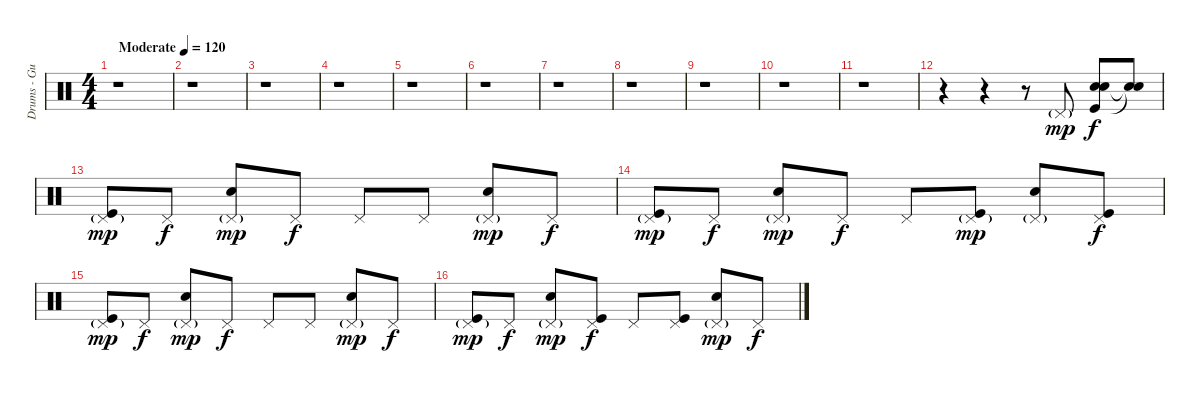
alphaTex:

\track ("Drums - Gustav" "Drums - Gu") {instrument percussion}
\staff {score}
\articulation defaults
\ts (4 4)
\tempo (120 "Moderate")
\clef neutral
\ks c
r.1{dy mp} |
r.1 |
r.1 |
r.1 |
r.1 |
r.1 |
r.1 |
r.1 |
r.1 |
r.1 |
r.1 |
r.4 r.4 r.8 "Pedal Hi-Hat (hit)"{g}.8 ("Kick (hit)" "Snare (hit) 2" "Snare (hit) 2").8{dy f} ("Snare (hit)"{t} "Snare (hit) 2"{t}).8 |
("Kick (hit)" "Pedal Hi-Hat (hit)"{g}).8{dy mp} "Pedal Hi-Hat (hit)".8{dy f} ("Pedal Hi-Hat (hit)"{g} "Snare (hit) 2").8{dy mp} "Pedal Hi-Hat (hit)".8{dy f} "Pedal Hi-Hat (hit)".8 "Pedal Hi-Hat (hit)".8 ("Pedal Hi-Hat (hit)"{g} "Snare (hit) 2").8{dy mp} "Pedal Hi-Hat (hit)".8{dy f} |
("Kick (hit)" "Pedal Hi-Hat (hit)"{g}).8{dy mp} "Pedal Hi-Hat (hit)".8{dy f} ("Pedal Hi-Hat (hit)"{g} "Snare (hit) 2").8{dy mp} "Pedal Hi-Hat (hit)".8{dy f} "Pedal Hi-Hat (hit)".8 ("Kick (hit)" "Pedal Hi-Hat (hit)"{g}).8{dy mp} ("Pedal Hi-Hat (hit)"{g} "Snare (hit) 2").8 ("Kick (hit)" "Pedal Hi-Hat (hit)").8{dy f} |
("Kick (hit)" "Pedal Hi-Hat (hit)"{g}).8{dy mp} "Pedal Hi-Hat (hit)".8{dy f} ("Pedal Hi-Hat (hit)"{g} "Snare (hit) 2").8{dy mp} "Pedal Hi-Hat (hit)".8{dy f} "Pedal Hi-Hat (hit)".8 "Pedal Hi-Hat (hit)".8 ("Pedal Hi-Hat (hit)"{g} "Snare (hit) 2").8{dy mp} "Pedal Hi-Hat (hit)".8{dy f} |
("Kick (hit)" "Pedal Hi-Hat (hit)"{g}).8{dy mp} "Pedal Hi-Hat (hit)".8{dy f} ("Pedal Hi-Hat (hit)"{g} "Snare (hit) 2").8{dy mp} ("Kick (hit)" "Pedal Hi-Hat (hit)").8{dy f} "Pedal Hi-Hat (hit)".8 ("Kick (hit)" "Pedal Hi-Hat (hit)").8 ("Pedal Hi-Hat (hit)"{g} "Snare (hit) 2").8{dy mp} "Pedal Hi-Hat (hit)".8{dy f}
